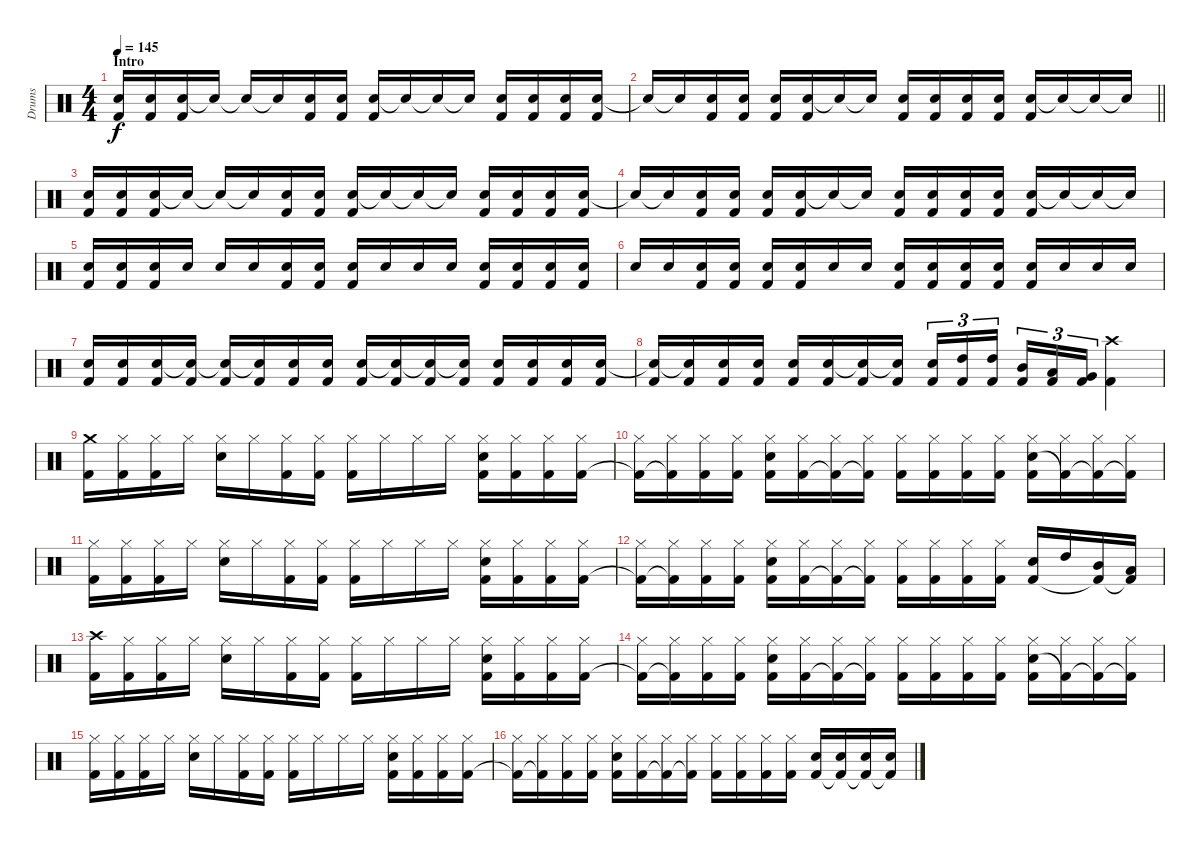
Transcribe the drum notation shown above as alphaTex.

\track ("Drums" "Drums") {instrument percussion}
\staff {score}
\articulation defaults
\ts (4 4)
\section ("" "Intro")
\tempo 145
\clef neutral
\ks c
("Electric Snare (hit)" "Kick (hit) 2").16{dy f} ("Electric Snare (hit)" "Kick (hit) 2").16 ("Electric Snare (hit)" "Kick (hit) 2").16 "Snare (hit)"{t}.16 "Electric Snare (hit)"{t}.16 "Electric Snare (hit)"{t}.16 ("Electric Snare (hit)" "Kick (hit) 2").16 ("Electric Snare (hit)" "Kick (hit) 2").16 ("Electric Snare (hit)" "Kick (hit) 2").16 "Snare (hit)"{t}.16 "Snare (hit)"{t}.16 "Snare (hit)"{t}.16 ("Electric Snare (hit)" "Kick (hit) 2").16 ("Electric Snare (hit)" "Kick (hit) 2").16 ("Electric Snare (hit)" "Kick (hit) 2").16 ("Electric Snare (hit)" "Kick (hit) 2").16 |
\barLineRight lightlight "Snare (hit)"{t}.16 "Snare (hit)"{t}.16
("Electric Snare (hit)" "Kick (hit) 2").16 ("Electric Snare (hit)" "Kick (hit) 2").16 ("Electric Snare (hit)" "Kick (hit) 2").16 ("Electric Snare (hit)" "Kick (hit) 2").16 "Electric Snare (hit)"{t}.16 "Snare (hit)"{t}.16 ("Electric Snare (hit)" "Kick (hit) 2").16 ("Electric Snare (hit)" "Kick (hit) 2").16 ("Electric Snare (hit)" "Kick (hit) 2").16 ("Electric Snare (hit)" "Kick (hit) 2").16 ("Electric Snare (hit)" "Kick (hit) 2").16 "Electric Snare (hit)"{t}.16 "Snare (hit)"{t}.16 "Electric Snare (hit)"{t}.16 |
("Electric Snare (hit)" "Kick (hit) 2").16 ("Electric Snare (hit)" "Kick (hit) 2").16 ("Electric Snare (hit)" "Kick (hit) 2").16 "Snare (hit)"{t}.16 "Electric Snare (hit)"{t}.16 "Electric Snare (hit)"{t}.16 ("Electric Snare (hit)" "Kick (hit) 2").16 ("Electric Snare (hit)" "Kick (hit) 2").16 ("Electric Snare (hit)" "Kick (hit) 2").16 "Snare (hit)"{t}.16 "Snare (hit)"{t}.16 "Snare (hit)"{t}.16 ("Electric Snare (hit)" "Kick (hit) 2").16 ("Electric Snare (hit)" "Kick (hit) 2").16 ("Electric Snare (hit)" "Kick (hit) 2").16 ("Electric Snare (hit)" "Kick (hit) 2").16 |
"Snare (hit)"{t}.16 "Snare (hit)"{t}.16 ("Electric Snare (hit)" "Kick (hit) 2").16 ("Electric Snare (hit)" "Kick (hit) 2").16 ("Electric Snare (hit)" "Kick (hit) 2").16 ("Electric Snare (hit)" "Kick (hit) 2").16 "Electric Snare (hit)"{t}.16 "Snare (hit)"{t}.16 ("Electric Snare (hit)" "Kick (hit) 2").16 ("Electric Snare (hit)" "Kick (hit) 2").16 ("Electric Snare (hit)" "Kick (hit) 2").16 ("Electric Snare (hit)" "Kick (hit) 2").16 ("Electric Snare (hit)" "Kick (hit) 2").16 "Electric Snare (hit)"{t}.16 "Snare (hit)"{t}.16 "Electric Snare (hit)"{t}.16 |
("Electric Snare (hit)" "Kick (hit) 2").16 ("Electric Snare (hit)" "Kick (hit) 2").16 ("Electric Snare (hit)" "Kick (hit) 2").16 "Electric Snare (hit)".16 "Electric Snare (hit)".16 "Electric Snare (hit)".16 ("Electric Snare (hit)" "Kick (hit) 2").16 ("Electric Snare (hit)" "Kick (hit) 2").16 ("Electric Snare (hit)" "Kick (hit) 2").16 "Electric Snare (hit)".16 "Electric Snare (hit)".16 "Electric Snare (hit)".16 ("Electric Snare (hit)" "Kick (hit) 2").16 ("Electric Snare (hit)" "Kick (hit) 2").16 ("Electric Snare (hit)" "Kick (hit) 2").16 ("Electric Snare (hit)" "Kick (hit) 2").16 |
"Electric Snare (hit)".16 "Electric Snare (hit)".16 ("Electric Snare (hit)" "Kick (hit) 2").16 ("Electric Snare (hit)" "Kick (hit) 2").16 ("Electric Snare (hit)" "Kick (hit) 2").16 ("Electric Snare (hit)" "Kick (hit) 2").16 "Electric Snare (hit)".16 "Electric Snare (hit)".16 ("Electric Snare (hit)" "Kick (hit) 2").16 ("Electric Snare (hit)" "Kick (hit) 2").16 ("Electric Snare (hit)" "Kick (hit) 2").16 ("Electric Snare (hit)" "Kick (hit) 2").16 ("Electric Snare (hit)" "Kick (hit) 2").16 "Electric Snare (hit)".16 "Electric Snare (hit)".16 "Electric Snare (hit)".16 |
("Electric Snare (hit)" "Kick (hit) 2").16 ("Electric Snare (hit)" "Kick (hit) 2").16 ("Electric Snare (hit)" "Kick (hit) 2").16 ("Snare (hit)"{t} "Kick (hit) 2").16 ("Electric Snare (hit)"{t} "Kick (hit) 2").16 ("Electric Snare (hit)"{t} "Kick (hit) 2").16 ("Electric Snare (hit)" "Kick (hit) 2").16 ("Electric Snare (hit)" "Kick (hit) 2").16 ("Electric Snare (hit)" "Kick (hit) 2").16 ("Snare (hit)"{t} "Kick (hit) 2").16 ("Snare (hit)"{t} "Kick (hit) 2").16 ("Snare (hit)"{t} "Kick (hit) 2").16 ("Electric Snare (hit)" "Kick (hit) 2").16 ("Electric Snare (hit)" "Kick (hit) 2").16 ("Electric Snare (hit)" "Kick (hit) 2").16 ("Electric Snare (hit)" "Kick (hit) 2").16 |
("Snare (hit)"{t} "Kick (hit) 2").16 ("Snare (hit)"{t} "Kick (hit) 2").16 ("Electric Snare (hit)" "Kick (hit) 2").16 ("Electric Snare (hit)" "Kick (hit) 2").16 ("Electric Snare (hit)" "Kick (hit) 2").16 ("Electric Snare (hit)" "Kick (hit) 2").16 ("Electric Snare (hit)"{t} "Kick (hit) 2").16 ("Snare (hit)"{t} "Kick (hit) 2").16 ("Electric Snare (hit)" "Kick (hit) 2").16{tu (3 2)} ("High Tom (hit)" "Kick (hit) 2").16{tu (3 2)} ("High Tom (hit)" "Kick (hit) 2").16{tu (3 2) beam splitsecondary} ("Mid Tom (hit)" "Kick (hit) 2").16{tu (3 2)} ("Low Tom (hit)" "Kick (hit) 2").16{tu (3 2)} ("Very Low Tom (hit)" "Kick (hit) 2").16{tu (3 2)} ("Crash high (hit)" "Kick (hit) 2").4 |
("Crash medium (hit)" "Kick (hit) 2").16 ("Hi-Hat (closed)" "Kick (hit) 2").16 ("Hi-Hat (closed)" "Kick (hit) 2").16 "Hi-Hat (closed)".16 ("Hi-Hat (closed)" "Electric Snare (hit)").16 "Hi-Hat (closed)".16 ("Hi-Hat (closed)" "Kick (hit) 2").16 ("Hi-Hat (closed)" "Kick (hit) 2").16 ("Hi-Hat (closed)" "Kick (hit) 2").16 "Hi-Hat (closed)".16 "Hi-Hat (closed)".16 "Hi-Hat (closed)".16 ("Hi-Hat (closed)" "Electric Snare (hit)" "Kick (hit) 2").16 ("Hi-Hat (closed)" "Kick (hit) 2").16 ("Hi-Hat (closed)" "Kick (hit) 2").16 ("Hi-Hat (closed)" "Kick (hit) 2").16 |
("Hi-Hat (closed)" "Kick (hit) 2"{t}).16 ("Hi-Hat (closed)" "Kick (hit) 2"{t}).16 ("Hi-Hat (closed)" "Kick (hit) 2").16 ("Hi-Hat (closed)" "Kick (hit) 2").16 ("Hi-Hat (closed)" "Electric Snare (hit)" "Kick (hit) 2").16 ("Hi-Hat (closed)" "Kick (hit) 2").16 ("Hi-Hat (closed)" "Kick (hit) 2"{t}).16 ("Hi-Hat (closed)" "Kick (hit) 2"{t}).16 ("Hi-Hat (closed)" "Kick (hit) 2").16 ("Hi-Hat (closed)" "Kick (hit) 2").16 ("Hi-Hat (closed)" "Kick (hit) 2").16 ("Hi-Hat (closed)" "Kick (hit) 2").16 ("Hi-Hat (closed)" "Electric Snare (hit)" "Kick (hit) 2").16 ("Hi-Hat (closed)" "Kick (hit) 2"{t}).16 ("Hi-Hat (closed)" "Kick (hit) 2"{t}).16 ("Hi-Hat (closed)" "Kick (hit) 2"{t}).16 |
("Hi-Hat (closed)" "Kick (hit) 2").16 ("Hi-Hat (closed)" "Kick (hit) 2").16 ("Hi-Hat (closed)" "Kick (hit) 2").16 "Hi-Hat (closed)".16 ("Hi-Hat (closed)" "Electric Snare (hit)").16 "Hi-Hat (closed)".16 ("Hi-Hat (closed)" "Kick (hit) 2").16 ("Hi-Hat (closed)" "Kick (hit) 2").16 ("Hi-Hat (closed)" "Kick (hit) 2").16 "Hi-Hat (closed)".16 "Hi-Hat (closed)".16 "Hi-Hat (closed)".16 ("Hi-Hat (closed)" "Electric Snare (hit)" "Kick (hit) 2").16 ("Hi-Hat (closed)" "Kick (hit) 2").16 ("Hi-Hat (closed)" "Kick (hit) 2").16 ("Hi-Hat (closed)" "Kick (hit) 2").16 |
("Hi-Hat (closed)" "Kick (hit) 2"{t}).16 ("Hi-Hat (closed)" "Kick (hit) 2"{t}).16 ("Hi-Hat (closed)" "Kick (hit) 2").16 ("Hi-Hat (closed)" "Kick (hit) 2").16 ("Hi-Hat (closed)" "Electric Snare (hit)" "Kick (hit) 2").16 ("Hi-Hat (closed)" "Kick (hit) 2").16 ("Hi-Hat (closed)" "Kick (hit) 2"{t}).16 ("Hi-Hat (closed)" "Kick (hit) 2"{t}).16 ("Hi-Hat (closed)" "Kick (hit) 2").16 ("Hi-Hat (closed)" "Kick (hit) 2").16 ("Hi-Hat (closed)" "Kick (hit) 2").16 ("Hi-Hat (closed)" "Kick (hit) 2").16 ("Electric Snare (hit)" "Kick (hit) 2").16 "High Tom (hit)".16 ("Mid Tom (hit)" "Kick (hit) 2"{t}).16 ("Low Tom (hit)" "Kick (hit) 2"{t}).16 |
("Crash high (hit)" "Kick (hit) 2").16 ("Hi-Hat (closed)" "Kick (hit) 2").16 ("Hi-Hat (closed)" "Kick (hit) 2").16 "Hi-Hat (closed)".16 ("Hi-Hat (closed)" "Electric Snare (hit)").16 "Hi-Hat (closed)".16 ("Hi-Hat (closed)" "Kick (hit) 2").16 ("Hi-Hat (closed)" "Kick (hit) 2").16 ("Hi-Hat (closed)" "Kick (hit) 2").16 "Hi-Hat (closed)".16 "Hi-Hat (closed)".16 "Hi-Hat (closed)".16 ("Hi-Hat (closed)" "Electric Snare (hit)" "Kick (hit) 2").16 ("Hi-Hat (closed)" "Kick (hit) 2").16 ("Hi-Hat (closed)" "Kick (hit) 2").16 ("Hi-Hat (closed)" "Kick (hit) 2").16 |
("Hi-Hat (closed)" "Kick (hit) 2"{t}).16 ("Hi-Hat (closed)" "Kick (hit) 2"{t}).16 ("Hi-Hat (closed)" "Kick (hit) 2").16 ("Hi-Hat (closed)" "Kick (hit) 2").16 ("Hi-Hat (closed)" "Electric Snare (hit)" "Kick (hit) 2").16 ("Hi-Hat (closed)" "Kick (hit) 2").16 ("Hi-Hat (closed)" "Kick (hit) 2"{t}).16 ("Hi-Hat (closed)" "Kick (hit) 2"{t}).16 ("Hi-Hat (closed)" "Kick (hit) 2").16 ("Hi-Hat (closed)" "Kick (hit) 2").16 ("Hi-Hat (closed)" "Kick (hit) 2").16 ("Hi-Hat (closed)" "Kick (hit) 2").16 ("Hi-Hat (closed)" "Electric Snare (hit)" "Kick (hit) 2").16 ("Hi-Hat (closed)" "Kick (hit) 2"{t}).16 ("Hi-Hat (closed)" "Kick (hit) 2"{t}).16 ("Hi-Hat (closed)" "Kick (hit) 2"{t}).16 |
("Hi-Hat (closed)" "Kick (hit) 2").16 ("Hi-Hat (closed)" "Kick (hit) 2").16 ("Hi-Hat (closed)" "Kick (hit) 2").16 "Hi-Hat (closed)".16 ("Hi-Hat (closed)" "Electric Snare (hit)").16 "Hi-Hat (closed)".16 ("Hi-Hat (closed)" "Kick (hit) 2").16 ("Hi-Hat (closed)" "Kick (hit) 2").16 ("Hi-Hat (closed)" "Kick (hit) 2").16 "Hi-Hat (closed)".16 "Hi-Hat (closed)".16 "Hi-Hat (closed)".16 ("Hi-Hat (closed)" "Electric Snare (hit)" "Kick (hit) 2").16 ("Hi-Hat (closed)" "Kick (hit) 2").16 ("Hi-Hat (closed)" "Kick (hit) 2").16 ("Hi-Hat (closed)" "Kick (hit) 2").16 |
("Hi-Hat (closed)" "Kick (hit) 2"{t}).16 ("Hi-Hat (closed)" "Kick (hit) 2"{t}).16 ("Hi-Hat (closed)" "Kick (hit) 2").16 ("Hi-Hat (closed)" "Kick (hit) 2").16 ("Hi-Hat (closed)" "Electric Snare (hit)" "Kick (hit) 2").16 ("Hi-Hat (closed)" "Kick (hit) 2").16 ("Hi-Hat (closed)" "Kick (hit) 2"{t}).16 ("Hi-Hat (closed)" "Kick (hit) 2"{t}).16 ("Hi-Hat (closed)" "Kick (hit) 2").16 ("Hi-Hat (closed)" "Kick (hit) 2").16 ("Hi-Hat (closed)" "Kick (hit) 2").16 ("Hi-Hat (closed)" "Kick (hit) 2").16 ("Electric Snare (hit)" "Kick (hit) 2").16 ("Electric Snare (hit)" "Kick (hit) 2"{t}).16 ("Electric Snare (hit)" "Kick (hit) 2"{t}).16 ("Electric Snare (hit)" "Kick (hit) 2"{t}).16
